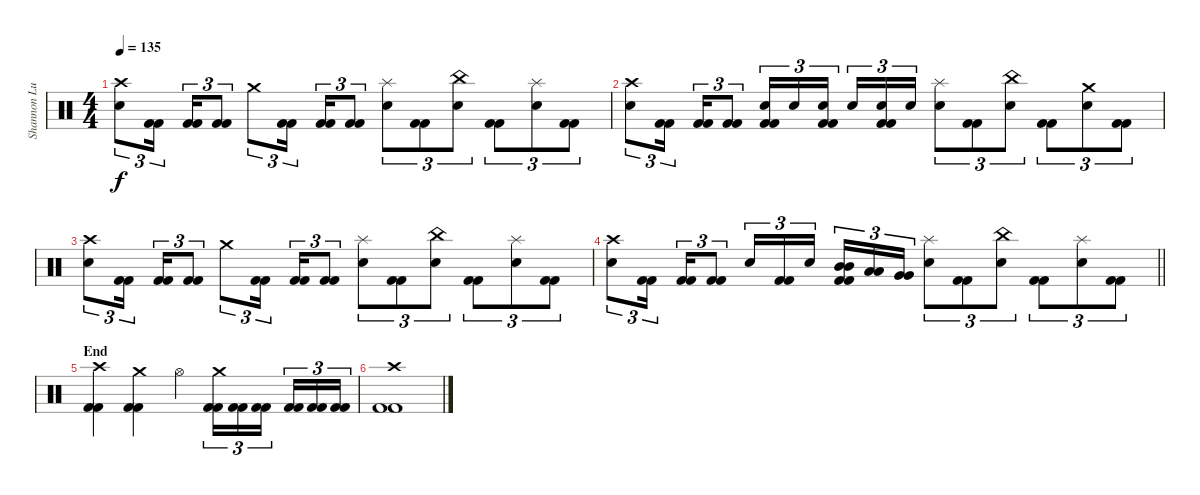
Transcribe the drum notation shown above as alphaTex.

\track ("Shannon Lucas" "Shannon Lu") {instrument percussion}
\staff {score}
\articulation defaults
\ts (4 4)
\tempo 135
\clef neutral
\ks c
("Crash high (hit)" "Electric Snare (hit)").8{tu (3 2) dy f} ("Kick (hit) 2" "Kick (hit) 2").16{tu (3 2) beam splitsecondary} ("Kick (hit) 2" "Kick (hit) 2").16{tu (3 2)} ("Kick (hit) 2" "Kick (hit) 2").8{tu (3 2)} "Crash medium (hit)".8{tu (3 2)} ("Kick (hit) 2" "Kick (hit) 2").16{tu (3 2) beam splitsecondary} ("Kick (hit) 2" "Kick (hit) 2").16{tu (3 2)} ("Kick (hit) 2" "Kick (hit) 2").8{tu (3 2)} ("Splash (hit)" "Electric Snare (hit)").8{tu (3 2)} ("Kick (hit) 2" "Kick (hit) 2").8{tu (3 2)} ("China (hit)" "Electric Snare (hit)").8{tu (3 2)} ("Kick (hit) 2" "Kick (hit) 2").8{tu (3 2)} ("Splash (hit)" "Electric Snare (hit)").8{tu (3 2)} ("Kick (hit) 2" "Kick (hit) 2").8{tu (3 2)} |
("Crash high (hit)" "Electric Snare (hit)").8{tu (3 2)} ("Kick (hit) 2" "Kick (hit) 2").16{tu (3 2) beam splitsecondary} ("Kick (hit) 2" "Kick (hit) 2").16{tu (3 2)} ("Kick (hit) 2" "Kick (hit) 2").8{tu (3 2)} ("Electric Snare (hit)" "Kick (hit) 2" "Kick (hit) 2").16{tu (3 2)} "Electric Snare (hit)".16{tu (3 2)} ("Electric Snare (hit)" "Kick (hit) 2" "Kick (hit) 2").16{tu (3 2) beam splitsecondary} "Electric Snare (hit)".16{tu (3 2)} ("Electric Snare (hit)" "Kick (hit) 2" "Kick (hit) 2").16{tu (3 2)} "Electric Snare (hit)".16{tu (3 2)} ("Splash (hit)" "Electric Snare (hit)").8{tu (3 2)} ("Kick (hit) 2" "Kick (hit) 2").8{tu (3 2)} ("China (hit)" "Electric Snare (hit)").8{tu (3 2)} ("Kick (hit) 2" "Kick (hit) 2").8{tu (3 2)} ("Crash medium (hit)" "Electric Snare (hit)").8{tu (3 2)} ("Kick (hit) 2" "Kick (hit) 2").8{tu (3 2)} |
("Crash high (hit)" "Electric Snare (hit)").8{tu (3 2)} ("Kick (hit) 2" "Kick (hit) 2").16{tu (3 2) beam splitsecondary} ("Kick (hit) 2" "Kick (hit) 2").16{tu (3 2)} ("Kick (hit) 2" "Kick (hit) 2").8{tu (3 2)} "Crash medium (hit)".8{tu (3 2)} ("Kick (hit) 2" "Kick (hit) 2").16{tu (3 2) beam splitsecondary} ("Kick (hit) 2" "Kick (hit) 2").16{tu (3 2)} ("Kick (hit) 2" "Kick (hit) 2").8{tu (3 2)} ("Splash (hit)" "Electric Snare (hit)").8{tu (3 2)} ("Kick (hit) 2" "Kick (hit) 2").8{tu (3 2)} ("China (hit)" "Electric Snare (hit)").8{tu (3 2)} ("Kick (hit) 2" "Kick (hit) 2").8{tu (3 2)} ("Splash (hit)" "Electric Snare (hit)").8{tu (3 2)} ("Kick (hit) 2" "Kick (hit) 2").8{tu (3 2)} |
\barLineRight lightlight
("Crash high (hit)" "Electric Snare (hit)").8{tu (3 2)} ("Kick (hit) 2" "Kick (hit) 2").16{tu (3 2) beam splitsecondary} ("Kick (hit) 2" "Kick (hit) 2").16{tu (3 2)} ("Kick (hit) 2" "Kick (hit) 2").8{tu (3 2)} "Electric Snare (hit)".16{tu (3 2)} ("Kick (hit) 2" "Kick (hit) 2").16{tu (3 2)} "Electric Snare (hit)".16{tu (3 2) beam splitsecondary} ("Mid Tom (hit)" "Mid Tom (hit)" "Kick (hit) 2" "Kick (hit) 2").16{tu (3 2)} ("Low Tom (hit)" "Low Tom (hit)").16{tu (3 2)} ("Very Low Tom (hit)" "Very Low Tom (hit)").16{tu (3 2)} ("Splash (hit)" "Electric Snare (hit)").8{tu (3 2)} ("Kick (hit) 2" "Kick (hit) 2").8{tu (3 2)} ("China (hit)" "Electric Snare (hit)").8{tu (3 2)} ("Kick (hit) 2" "Kick (hit) 2").8{tu (3 2)} ("Splash (hit)" "Electric Snare (hit)").8{tu (3 2)} ("Kick (hit) 2" "Kick (hit) 2").8{tu (3 2)} |
\section ("" "End")
("Crash high (hit)" "Kick (hit) 2" "Kick (hit) 2").4 ("Crash medium (hit)" "Kick (hit) 2" "Kick (hit) 2").4 "Hi-Hat (open)".4 ("Crash medium (hit)" "Kick (hit) 2" "Kick (hit) 2").16{tu (3 2)} ("Kick (hit) 2" "Kick (hit) 2").16{tu (3 2)} ("Kick (hit) 2" "Kick (hit) 2").16{tu (3 2) beam splitsecondary} ("Kick (hit) 2" "Kick (hit) 2").16{tu (3 2)} ("Kick (hit) 2" "Kick (hit) 2").16{tu (3 2)} ("Kick (hit) 2" "Kick (hit) 2").16{tu (3 2)} |
("Crash high (hit)" "Kick (hit) 2" "Kick (hit) 2").1
